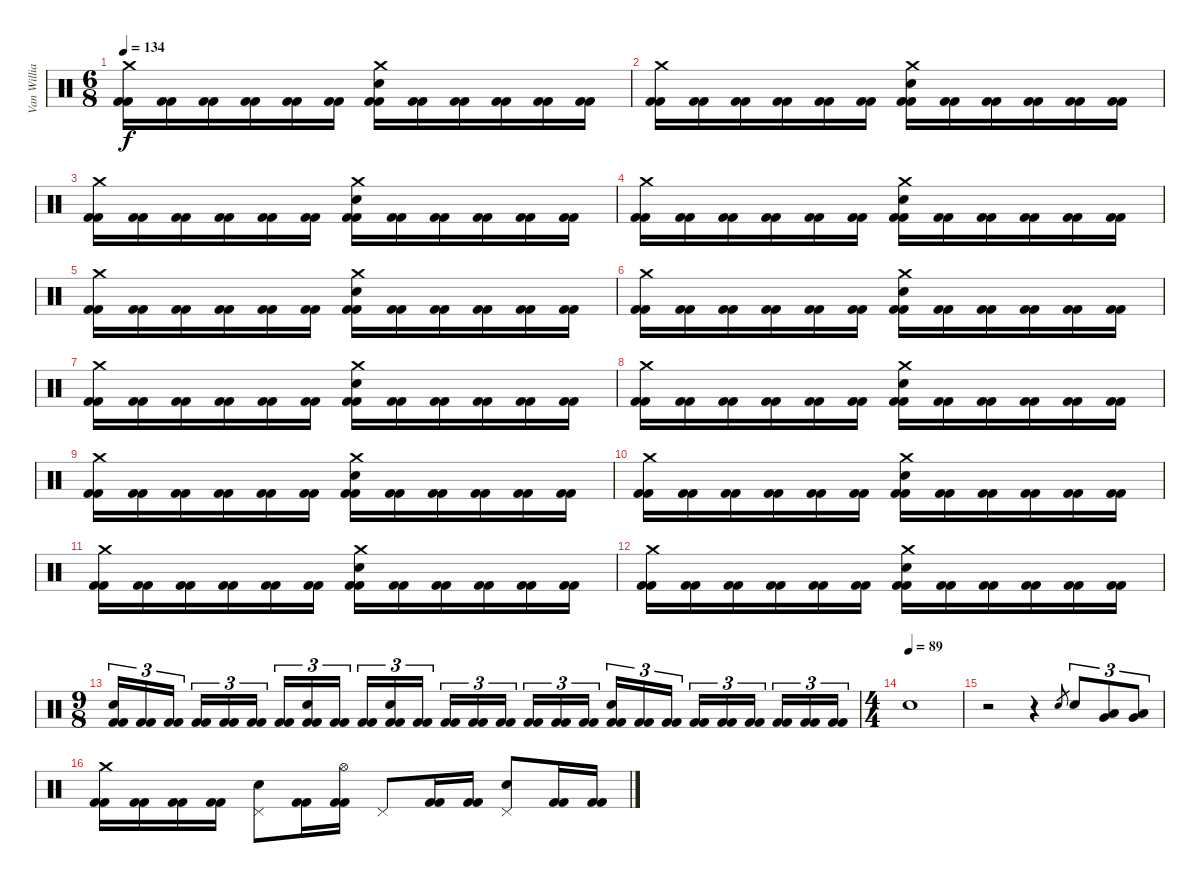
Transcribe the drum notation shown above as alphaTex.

\track ("Van Williams" "Van Willia") {instrument percussion}
\staff {score}
\articulation defaults
\ts (6 8)
\tempo 134
\clef neutral
\ks c
("Crash medium (hit)" "Kick (hit) 2" "Kick (hit) 2").16{dy f} ("Kick (hit) 2" "Kick (hit) 2").16 ("Kick (hit) 2" "Kick (hit) 2").16 ("Kick (hit) 2" "Kick (hit) 2").16 ("Kick (hit) 2" "Kick (hit) 2").16 ("Kick (hit) 2" "Kick (hit) 2").16 ("Crash medium (hit)" "Electric Snare (hit)" "Kick (hit) 2" "Kick (hit) 2").16 ("Kick (hit) 2" "Kick (hit) 2").16 ("Kick (hit) 2" "Kick (hit) 2").16 ("Kick (hit) 2" "Kick (hit) 2").16 ("Kick (hit) 2" "Kick (hit) 2").16 ("Kick (hit) 2" "Kick (hit) 2").16 |
("Crash medium (hit)" "Kick (hit) 2" "Kick (hit) 2").16 ("Kick (hit) 2" "Kick (hit) 2").16 ("Kick (hit) 2" "Kick (hit) 2").16 ("Kick (hit) 2" "Kick (hit) 2").16 ("Kick (hit) 2" "Kick (hit) 2").16 ("Kick (hit) 2" "Kick (hit) 2").16 ("Crash medium (hit)" "Electric Snare (hit)" "Kick (hit) 2" "Kick (hit) 2").16 ("Kick (hit) 2" "Kick (hit) 2").16 ("Kick (hit) 2" "Kick (hit) 2").16 ("Kick (hit) 2" "Kick (hit) 2").16 ("Kick (hit) 2" "Kick (hit) 2").16 ("Kick (hit) 2" "Kick (hit) 2").16 |
("Crash medium (hit)" "Kick (hit) 2" "Kick (hit) 2").16 ("Kick (hit) 2" "Kick (hit) 2").16 ("Kick (hit) 2" "Kick (hit) 2").16 ("Kick (hit) 2" "Kick (hit) 2").16 ("Kick (hit) 2" "Kick (hit) 2").16 ("Kick (hit) 2" "Kick (hit) 2").16 ("Crash medium (hit)" "Electric Snare (hit)" "Kick (hit) 2" "Kick (hit) 2").16 ("Kick (hit) 2" "Kick (hit) 2").16 ("Kick (hit) 2" "Kick (hit) 2").16 ("Kick (hit) 2" "Kick (hit) 2").16 ("Kick (hit) 2" "Kick (hit) 2").16 ("Kick (hit) 2" "Kick (hit) 2").16 |
("Crash medium (hit)" "Kick (hit) 2" "Kick (hit) 2").16 ("Kick (hit) 2" "Kick (hit) 2").16 ("Kick (hit) 2" "Kick (hit) 2").16 ("Kick (hit) 2" "Kick (hit) 2").16 ("Kick (hit) 2" "Kick (hit) 2").16 ("Kick (hit) 2" "Kick (hit) 2").16 ("Crash medium (hit)" "Electric Snare (hit)" "Kick (hit) 2" "Kick (hit) 2").16 ("Kick (hit) 2" "Kick (hit) 2").16 ("Kick (hit) 2" "Kick (hit) 2").16 ("Kick (hit) 2" "Kick (hit) 2").16 ("Kick (hit) 2" "Kick (hit) 2").16 ("Kick (hit) 2" "Kick (hit) 2").16 |
("Crash medium (hit)" "Kick (hit) 2" "Kick (hit) 2").16 ("Kick (hit) 2" "Kick (hit) 2").16 ("Kick (hit) 2" "Kick (hit) 2").16 ("Kick (hit) 2" "Kick (hit) 2").16 ("Kick (hit) 2" "Kick (hit) 2").16 ("Kick (hit) 2" "Kick (hit) 2").16 ("Crash medium (hit)" "Electric Snare (hit)" "Kick (hit) 2" "Kick (hit) 2").16 ("Kick (hit) 2" "Kick (hit) 2").16 ("Kick (hit) 2" "Kick (hit) 2").16 ("Kick (hit) 2" "Kick (hit) 2").16 ("Kick (hit) 2" "Kick (hit) 2").16 ("Kick (hit) 2" "Kick (hit) 2").16 |
("Crash medium (hit)" "Kick (hit) 2" "Kick (hit) 2").16 ("Kick (hit) 2" "Kick (hit) 2").16 ("Kick (hit) 2" "Kick (hit) 2").16 ("Kick (hit) 2" "Kick (hit) 2").16 ("Kick (hit) 2" "Kick (hit) 2").16 ("Kick (hit) 2" "Kick (hit) 2").16 ("Crash medium (hit)" "Electric Snare (hit)" "Kick (hit) 2" "Kick (hit) 2").16 ("Kick (hit) 2" "Kick (hit) 2").16 ("Kick (hit) 2" "Kick (hit) 2").16 ("Kick (hit) 2" "Kick (hit) 2").16 ("Kick (hit) 2" "Kick (hit) 2").16 ("Kick (hit) 2" "Kick (hit) 2").16 |
("Crash medium (hit)" "Kick (hit) 2" "Kick (hit) 2").16 ("Kick (hit) 2" "Kick (hit) 2").16 ("Kick (hit) 2" "Kick (hit) 2").16 ("Kick (hit) 2" "Kick (hit) 2").16 ("Kick (hit) 2" "Kick (hit) 2").16 ("Kick (hit) 2" "Kick (hit) 2").16 ("Crash medium (hit)" "Electric Snare (hit)" "Kick (hit) 2" "Kick (hit) 2").16 ("Kick (hit) 2" "Kick (hit) 2").16 ("Kick (hit) 2" "Kick (hit) 2").16 ("Kick (hit) 2" "Kick (hit) 2").16 ("Kick (hit) 2" "Kick (hit) 2").16 ("Kick (hit) 2" "Kick (hit) 2").16 |
("Crash medium (hit)" "Kick (hit) 2" "Kick (hit) 2").16 ("Kick (hit) 2" "Kick (hit) 2").16 ("Kick (hit) 2" "Kick (hit) 2").16 ("Kick (hit) 2" "Kick (hit) 2").16 ("Kick (hit) 2" "Kick (hit) 2").16 ("Kick (hit) 2" "Kick (hit) 2").16 ("Crash medium (hit)" "Electric Snare (hit)" "Kick (hit) 2" "Kick (hit) 2").16 ("Kick (hit) 2" "Kick (hit) 2").16 ("Kick (hit) 2" "Kick (hit) 2").16 ("Kick (hit) 2" "Kick (hit) 2").16 ("Kick (hit) 2" "Kick (hit) 2").16 ("Kick (hit) 2" "Kick (hit) 2").16 |
("Crash medium (hit)" "Kick (hit) 2" "Kick (hit) 2").16 ("Kick (hit) 2" "Kick (hit) 2").16 ("Kick (hit) 2" "Kick (hit) 2").16 ("Kick (hit) 2" "Kick (hit) 2").16 ("Kick (hit) 2" "Kick (hit) 2").16 ("Kick (hit) 2" "Kick (hit) 2").16 ("Crash medium (hit)" "Electric Snare (hit)" "Kick (hit) 2" "Kick (hit) 2").16 ("Kick (hit) 2" "Kick (hit) 2").16 ("Kick (hit) 2" "Kick (hit) 2").16 ("Kick (hit) 2" "Kick (hit) 2").16 ("Kick (hit) 2" "Kick (hit) 2").16 ("Kick (hit) 2" "Kick (hit) 2").16 |
("Crash medium (hit)" "Kick (hit) 2" "Kick (hit) 2").16 ("Kick (hit) 2" "Kick (hit) 2").16 ("Kick (hit) 2" "Kick (hit) 2").16 ("Kick (hit) 2" "Kick (hit) 2").16 ("Kick (hit) 2" "Kick (hit) 2").16 ("Kick (hit) 2" "Kick (hit) 2").16 ("Crash medium (hit)" "Electric Snare (hit)" "Kick (hit) 2" "Kick (hit) 2").16 ("Kick (hit) 2" "Kick (hit) 2").16 ("Kick (hit) 2" "Kick (hit) 2").16 ("Kick (hit) 2" "Kick (hit) 2").16 ("Kick (hit) 2" "Kick (hit) 2").16 ("Kick (hit) 2" "Kick (hit) 2").16 |
("Crash medium (hit)" "Kick (hit) 2" "Kick (hit) 2").16 ("Kick (hit) 2" "Kick (hit) 2").16 ("Kick (hit) 2" "Kick (hit) 2").16 ("Kick (hit) 2" "Kick (hit) 2").16 ("Kick (hit) 2" "Kick (hit) 2").16 ("Kick (hit) 2" "Kick (hit) 2").16 ("Crash medium (hit)" "Electric Snare (hit)" "Kick (hit) 2" "Kick (hit) 2").16 ("Kick (hit) 2" "Kick (hit) 2").16 ("Kick (hit) 2" "Kick (hit) 2").16 ("Kick (hit) 2" "Kick (hit) 2").16 ("Kick (hit) 2" "Kick (hit) 2").16 ("Kick (hit) 2" "Kick (hit) 2").16 |
("Crash medium (hit)" "Kick (hit) 2" "Kick (hit) 2").16 ("Kick (hit) 2" "Kick (hit) 2").16 ("Kick (hit) 2" "Kick (hit) 2").16 ("Kick (hit) 2" "Kick (hit) 2").16 ("Kick (hit) 2" "Kick (hit) 2").16 ("Kick (hit) 2" "Kick (hit) 2").16 ("Crash medium (hit)" "Electric Snare (hit)" "Kick (hit) 2" "Kick (hit) 2").16 ("Kick (hit) 2" "Kick (hit) 2").16 ("Kick (hit) 2" "Kick (hit) 2").16 ("Kick (hit) 2" "Kick (hit) 2").16 ("Kick (hit) 2" "Kick (hit) 2").16 ("Kick (hit) 2" "Kick (hit) 2").16 |
\ts (9 8)
("Electric Snare (hit)" "Kick (hit) 2" "Kick (hit) 2").16{tu (3 2)} ("Kick (hit) 2" "Kick (hit) 2").16{tu (3 2)} ("Kick (hit) 2" "Kick (hit) 2").16{tu (3 2) beam splitsecondary} ("Kick (hit) 2" "Kick (hit) 2").16{tu (3 2)} ("Kick (hit) 2" "Kick (hit) 2").16{tu (3 2)} ("Kick (hit) 2" "Kick (hit) 2").16{tu (3 2) beam splitsecondary} ("Kick (hit) 2" "Kick (hit) 2").16{tu (3 2)} ("Electric Snare (hit)" "Kick (hit) 2" "Kick (hit) 2").16{tu (3 2)} ("Kick (hit) 2" "Kick (hit) 2").16{tu (3 2)} ("Kick (hit) 2" "Kick (hit) 2").16{tu (3 2)} ("Electric Snare (hit)" "Kick (hit) 2" "Kick (hit) 2").16{tu (3 2)} ("Kick (hit) 2" "Kick (hit) 2").16{tu (3 2) beam splitsecondary} ("Kick (hit) 2" "Kick (hit) 2").16{tu (3 2)} ("Kick (hit) 2" "Kick (hit) 2").16{tu (3 2)} ("Kick (hit) 2" "Kick (hit) 2").16{tu (3 2) beam splitsecondary} ("Kick (hit) 2" "Kick (hit) 2").16{tu (3 2)} ("Kick (hit) 2" "Kick (hit) 2").16{tu (3 2)} ("Kick (hit) 2" "Kick (hit) 2").16{tu (3 2)} ("Electric Snare (hit)" "Kick (hit) 2" "Kick (hit) 2").16{tu (3 2)} ("Kick (hit) 2" "Kick (hit) 2").16{tu (3 2)} ("Kick (hit) 2" "Kick (hit) 2").16{tu (3 2) beam splitsecondary} ("Kick (hit) 2" "Kick (hit) 2").16{tu (3 2)} ("Kick (hit) 2" "Kick (hit) 2").16{tu (3 2)} ("Kick (hit) 2" "Kick (hit) 2").16{tu (3 2) beam splitsecondary} ("Kick (hit) 2" "Kick (hit) 2").16{tu (3 2)} ("Kick (hit) 2" "Kick (hit) 2").16{tu (3 2)} ("Kick (hit) 2" "Kick (hit) 2").16{tu (3 2)} |
\ts (4 4)
\tempo (89)
"Electric Snare (hit)".1 |
r.2 r.4 "Electric Snare (hit)".8{gr} "Electric Snare (hit)".8{tu (3 2)} ("Low Tom (hit)" "Very Low Tom (hit)").8{tu (3 2)} ("Very Low Tom (hit)" "Low Floor Tom (hit)").8{tu (3 2)} |
("Crash medium (hit)" "Kick (hit) 2" "Kick (hit) 2").16 ("Kick (hit) 2" "Kick (hit) 2").16 ("Kick (hit) 2" "Kick (hit) 2").16 ("Kick (hit) 2" "Kick (hit) 2").16 ("Pedal Hi-Hat (hit)" "Electric Snare (hit)").8 ("Kick (hit) 2" "Kick (hit) 2").16 ("Hi-Hat (open)" "Kick (hit) 2" "Kick (hit) 2").16 "Pedal Hi-Hat (hit)".8 ("Kick (hit) 2" "Kick (hit) 2").16 ("Kick (hit) 2" "Kick (hit) 2").16 ("Pedal Hi-Hat (hit)" "Electric Snare (hit)").8 ("Kick (hit) 2" "Kick (hit) 2").16 ("Kick (hit) 2" "Kick (hit) 2").16
